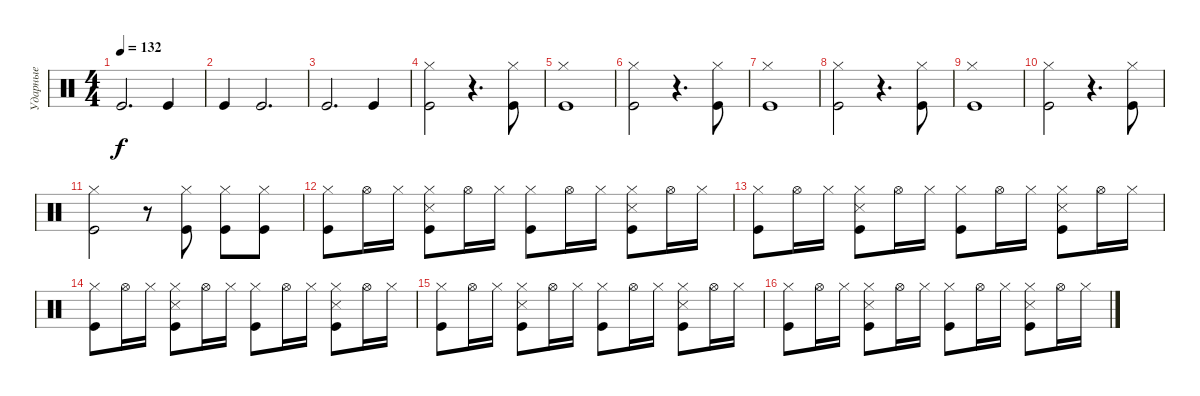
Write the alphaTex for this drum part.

\track ("Ударные" "Ударные") {instrument percussion}
\staff {score}
\articulation defaults
\ts (4 4)
\tempo 132
\clef neutral
\ks c "Kick (hit)".2{d dy f} "Kick (hit)".4
|
"Kick (hit)".4 "Kick (hit)".2{d} |
"Kick (hit)".2{d} "Kick (hit)".4 |
("Hi-Hat (closed)" "Kick (hit)").2 r.4{d} ("Hi-Hat (closed)" "Kick (hit)").8 |
("Hi-Hat (closed)" "Kick (hit)").1 |
("Hi-Hat (closed)" "Kick (hit)").2 r.4{d} ("Hi-Hat (closed)" "Kick (hit)").8 |
("Hi-Hat (closed)" "Kick (hit)").1 |
("Hi-Hat (closed)" "Kick (hit)").2 r.4{d} ("Hi-Hat (closed)" "Kick (hit)").8 |
("Hi-Hat (closed)" "Kick (hit)").1 |
("Hi-Hat (closed)" "Kick (hit)").2 r.4{d} ("Hi-Hat (closed)" "Kick (hit)").8 |
("Hi-Hat (closed)" "Kick (hit)").2 r.8 ("Hi-Hat (closed)" "Kick (hit)").8 ("Hi-Hat (closed)" "Kick (hit)").8 ("Hi-Hat (closed)" "Kick (hit)").8 |
("Kick (hit)" "Hi-Hat (closed)").8 "Hi-Hat (open)".16 "Hi-Hat (closed)".16 ("Hi-Hat (closed)" "Kick (hit)" "Snare (side stick) 3").8 "Hi-Hat (open)".16 "Hi-Hat (closed)".16 ("Kick (hit)" "Hi-Hat (closed)").8 "Hi-Hat (open)".16 "Hi-Hat (closed)".16 ("Hi-Hat (closed)" "Kick (hit)" "Snare (side stick) 3").8 "Hi-Hat (open)".16 "Hi-Hat (closed)".16 |
("Kick (hit)" "Hi-Hat (closed)").8 "Hi-Hat (open)".16 "Hi-Hat (closed)".16 ("Hi-Hat (closed)" "Kick (hit)" "Snare (side stick) 3").8 "Hi-Hat (open)".16 "Hi-Hat (closed)".16 ("Kick (hit)" "Hi-Hat (closed)").8 "Hi-Hat (open)".16 "Hi-Hat (closed)".16 ("Hi-Hat (closed)" "Kick (hit)" "Snare (side stick) 3").8 "Hi-Hat (open)".16 "Hi-Hat (closed)".16 |
("Kick (hit)" "Hi-Hat (closed)").8 "Hi-Hat (open)".16 "Hi-Hat (closed)".16 ("Hi-Hat (closed)" "Kick (hit)" "Snare (side stick) 3").8 "Hi-Hat (open)".16 "Hi-Hat (closed)".16 ("Kick (hit)" "Hi-Hat (closed)").8 "Hi-Hat (open)".16 "Hi-Hat (closed)".16 ("Hi-Hat (closed)" "Kick (hit)" "Snare (side stick) 3").8 "Hi-Hat (open)".16 "Hi-Hat (closed)".16 |
("Kick (hit)" "Hi-Hat (closed)").8 "Hi-Hat (open)".16 "Hi-Hat (closed)".16 ("Hi-Hat (closed)" "Kick (hit)" "Snare (side stick) 3").8 "Hi-Hat (open)".16 "Hi-Hat (closed)".16 ("Kick (hit)" "Hi-Hat (closed)").8 "Hi-Hat (open)".16 "Hi-Hat (closed)".16 ("Hi-Hat (closed)" "Kick (hit)" "Snare (side stick) 3").8 "Hi-Hat (open)".16 "Hi-Hat (closed)".16 |
("Kick (hit)" "Hi-Hat (closed)").8 "Hi-Hat (open)".16 "Hi-Hat (closed)".16 ("Hi-Hat (closed)" "Kick (hit)" "Snare (side stick) 3").8 "Hi-Hat (open)".16 "Hi-Hat (closed)".16 ("Kick (hit)" "Hi-Hat (closed)").8 "Hi-Hat (open)".16 "Hi-Hat (closed)".16 ("Hi-Hat (closed)" "Kick (hit)" "Snare (side stick) 3").8 "Hi-Hat (open)".16 "Hi-Hat (closed)".16
